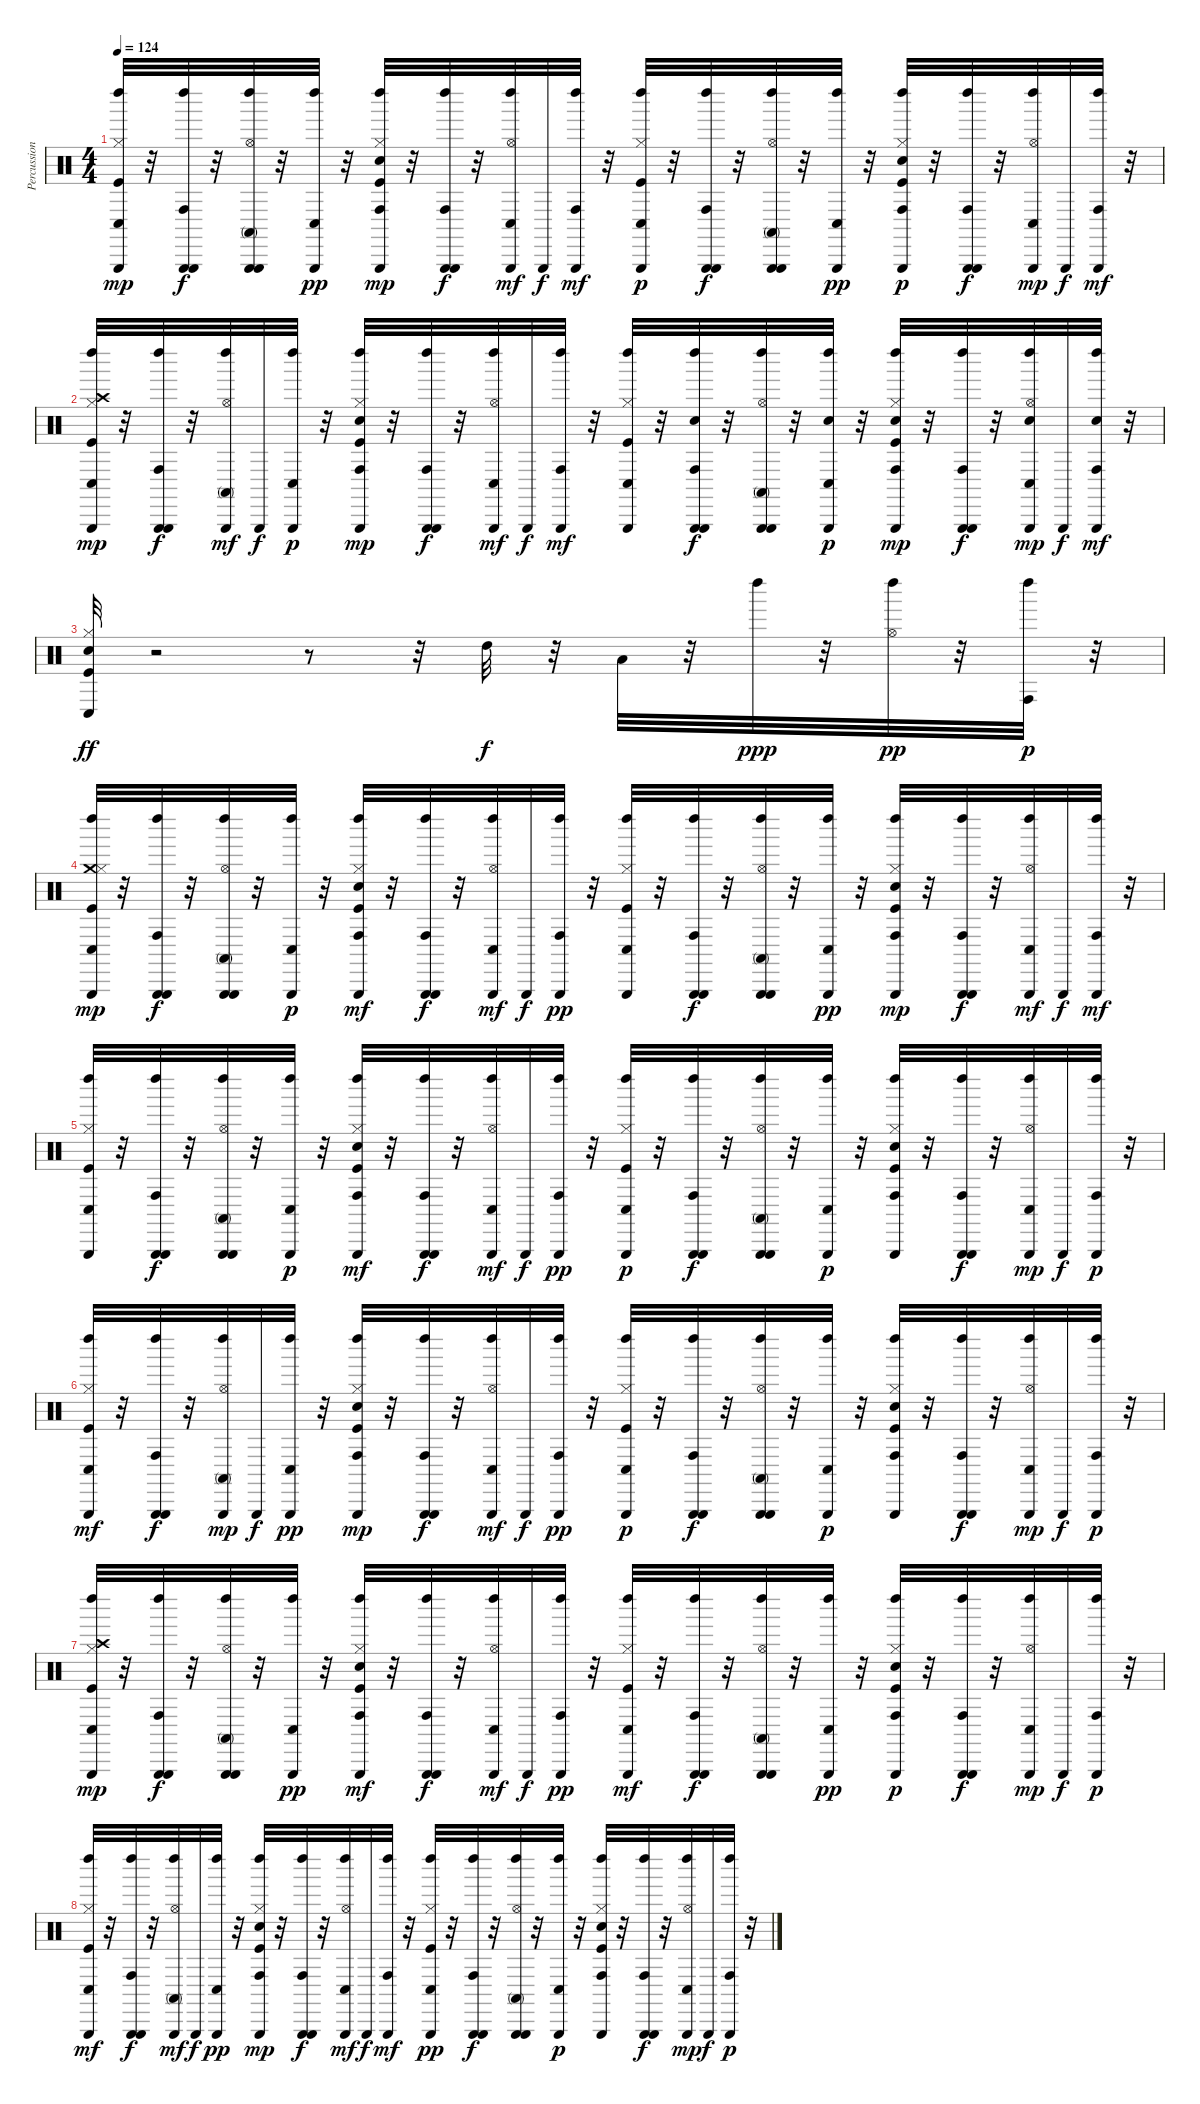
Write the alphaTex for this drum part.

\track ("Percussion" "Percussion") {instrument percussion}
\staff {score}
\articulation defaults
\ts (4 4)
\tempo 124
\clef neutral
\ks c
("Triangle (hit)" "Conga low (hit)" "Kick (hit)" "Hi-Hat (closed)" "Left Maraca (hit)").32{dy mp} r.32 ("Triangle (hit)" "Conga high (hit)" "Left Maraca (hit)" "Triangle (hit)").32{dy f} r.32 ("Triangle (hit)" "Hi-Hat (open)" "Conga high (mute)" "Left Maraca (hit)" "Triangle (hit)").32 r.32 ("Triangle (hit)" "Conga low (hit)" "Left Maraca (hit)").32{dy pp} r.32 ("Conga high (hit)" "Triangle (hit)" "Kick (hit)" "Snare (hit) 2" "Hi-Hat (closed)" "Left Maraca (hit)").32{dy mp} r.32 ("Triangle (hit)" "Left Maraca (hit)" "Conga high (hit)" "Triangle (hit)").32{dy f} r.32 ("Conga low (hit)" "Triangle (hit)" "Hi-Hat (open)" "Left Maraca (hit)").32{dy mf} "Triangle (hit)".32{dy f} ("Triangle (hit)" "Left Maraca (hit)" "Conga high (hit)").32{dy mf} r.32 ("Triangle (hit)" "Hi-Hat (closed)" "Kick (hit)" "Conga low (hit)" "Left Maraca (hit)").32{dy p} r.32 ("Conga high (hit)" "Triangle (hit)" "Left Maraca (hit)" "Triangle (hit)").32{dy f} r.32 ("Triangle (hit)" "Hi-Hat (open)" "Conga high (mute)" "Left Maraca (hit)" "Triangle (hit)").32 r.32 ("Triangle (hit)" "Conga low (hit)" "Left Maraca (hit)").32{dy pp} r.32 ("Triangle (hit)" "Kick (hit)" "Snare (hit) 2" "Hi-Hat (closed)" "Conga high (hit)" "Left Maraca (hit)").32{dy p} r.32 ("Triangle (hit)" "Left Maraca (hit)" "Conga high (hit)" "Triangle (hit)").32{dy f} r.32 ("Triangle (hit)" "Conga low (hit)" "Hi-Hat (open)" "Left Maraca (hit)").32{dy mp} "Triangle (hit)".32{dy f} ("Triangle (hit)" "Left Maraca (hit)" "Conga high (hit)").32{dy mf} r.32 |
("Triangle (hit)" "Kick (hit)" "Hi-Hat (closed)" "Crash high (hit)" "Conga low (hit)" "Left Maraca (hit)").32{dy mp} r.32 ("Triangle (hit)" "Left Maraca (hit)" "Conga high (hit)" "Triangle (hit)").32{dy f} r.32 ("Hi-Hat (open)" "Triangle (hit)" "Conga high (mute)" "Left Maraca (hit)").32{dy mf} "Triangle (hit)".32{dy f} ("Triangle (hit)" "Left Maraca (hit)" "Conga low (hit)").32{dy p} r.32 ("Triangle (hit)" "Kick (hit)" "Snare (hit) 2" "Hi-Hat (closed)" "Conga high (hit)" "Left Maraca (hit)").32{dy mp} r.32 ("Left Maraca (hit)" "Triangle (hit)" "Conga high (hit)" "Triangle (hit)").32{dy f} r.32 ("Triangle (hit)" "Left Maraca (hit)" "Hi-Hat (open)" "Conga low (hit)").32{dy mf} "Triangle (hit)".32{dy f} ("Triangle (hit)" "Left Maraca (hit)" "Conga high (hit)").32{dy mf} r.32 ("Triangle (hit)" "Kick (hit)" "Conga low (hit)" "Left Maraca (hit)" "Hi-Hat (closed)").32 r.32 ("Left Maraca (hit)" "Triangle (hit)" "Snare (hit) 2" "Conga high (hit)" "Triangle (hit)").32{dy f} r.32 ("Triangle (hit)" "Hi-Hat (open)" "Left Maraca (hit)" "Conga high (mute)" "Triangle (hit)").32 r.32 ("Left Maraca (hit)" "Triangle (hit)" "Snare (hit) 2" "Conga low (hit)").32{dy p} r.32 ("Left Maraca (hit)" "Triangle (hit)" "Kick (hit)" "Snare (hit) 2" "Conga high (hit)" "Hi-Hat (closed)").32{dy mp} r.32 ("Conga high (hit)" "Triangle (hit)" "Left Maraca (hit)" "Triangle (hit)").32{dy f} r.32 ("Triangle (hit)" "Hi-Hat (open)" "Snare (hit) 2" "Conga low (hit)" "Left Maraca (hit)").32{dy mp} "Triangle (hit)".32{dy f} ("Left Maraca (hit)" "Triangle (hit)" "Snare (hit) 2" "Conga high (hit)").32{dy mf} r.32 |
("Hi-Hat (closed)" "Kick (hit)" "Snare (hit) 2" "Conga low (hit)").32{dy ff} r.2 r.8 r.32 "High Tom (hit)".32{dy f} r.32 "Low Tom (hit)".32 r.32 "Left Maraca (hit)".32{dy ppp} r.32 ("Hi-Hat (open)" "Left Maraca (hit)").32{dy pp} r.32 ("Conga high (hit)" "Left Maraca (hit)").32{dy p} r.32 |
("Triangle (hit)" "Kick (hit)" "Crash medium (hit)" "Hi-Hat (closed)" "Conga low (hit)" "Left Maraca (hit)").32{dy mp} r.32 ("Conga high (hit)" "Triangle (hit)" "Left Maraca (hit)" "Triangle (hit)").32{dy f} r.32 ("Triangle (hit)" "Hi-Hat (open)" "Conga high (mute)" "Left Maraca (hit)" "Triangle (hit)").32 r.32 ("Triangle (hit)" "Left Maraca (hit)" "Conga low (hit)").32{dy p} r.32 ("Left Maraca (hit)" "Triangle (hit)" "Kick (hit)" "Snare (hit) 2" "Hi-Hat (closed)" "Conga high (hit)").32{dy mf} r.32 ("Left Maraca (hit)" "Triangle (hit)" "Conga high (hit)" "Triangle (hit)").32{dy f} r.32 ("Triangle (hit)" "Hi-Hat (open)" "Left Maraca (hit)" "Conga low (hit)").32{dy mf} "Triangle (hit)".32{dy f} ("Triangle (hit)" "Conga high (hit)" "Left Maraca (hit)").32{dy pp} r.32 ("Triangle (hit)" "Kick (hit)" "Hi-Hat (closed)" "Left Maraca (hit)" "Conga low (hit)").32 r.32 ("Triangle (hit)" "Conga high (hit)" "Left Maraca (hit)" "Triangle (hit)").32{dy f} r.32 ("Triangle (hit)" "Hi-Hat (open)" "Conga high (mute)" "Left Maraca (hit)" "Triangle (hit)").32 r.32 ("Triangle (hit)" "Conga low (hit)" "Left Maraca (hit)").32{dy pp} r.32 ("Triangle (hit)" "Conga high (hit)" "Left Maraca (hit)" "Kick (hit)" "Snare (hit) 2" "Hi-Hat (closed)").32{dy mp} r.32 ("Triangle (hit)" "Conga high (hit)" "Left Maraca (hit)" "Triangle (hit)").32{dy f} r.32 ("Left Maraca (hit)" "Triangle (hit)" "Hi-Hat (open)" "Conga low (hit)").32{dy mf} "Triangle (hit)".32{dy f} ("Triangle (hit)" "Left Maraca (hit)" "Conga high (hit)").32{dy mf} r.32 |
("Triangle (hit)" "Kick (hit)" "Conga low (hit)" "Left Maraca (hit)" "Hi-Hat (closed)").32 r.32 ("Triangle (hit)" "Left Maraca (hit)" "Conga high (hit)" "Triangle (hit)").32{dy f} r.32 ("Triangle (hit)" "Hi-Hat (open)" "Conga high (mute)" "Left Maraca (hit)" "Triangle (hit)").32 r.32 ("Triangle (hit)" "Left Maraca (hit)" "Conga low (hit)").32{dy p} r.32 ("Triangle (hit)" "Left Maraca (hit)" "Kick (hit)" "Snare (hit) 2" "Hi-Hat (closed)" "Conga high (hit)").32{dy mf} r.32 ("Triangle (hit)" "Left Maraca (hit)" "Conga high (hit)" "Triangle (hit)").32{dy f} r.32 ("Hi-Hat (open)" "Triangle (hit)" "Conga low (hit)" "Left Maraca (hit)").32{dy mf} "Triangle (hit)".32{dy f} ("Triangle (hit)" "Conga high (hit)" "Left Maraca (hit)").32{dy pp} r.32 ("Triangle (hit)" "Left Maraca (hit)" "Kick (hit)" "Hi-Hat (closed)" "Conga low (hit)").32{dy p} r.32 ("Triangle (hit)" "Conga high (hit)" "Left Maraca (hit)" "Triangle (hit)").32{dy f} r.32 ("Left Maraca (hit)" "Triangle (hit)" "Hi-Hat (open)" "Conga high (mute)" "Triangle (hit)").32 r.32 ("Triangle (hit)" "Left Maraca (hit)" "Conga low (hit)").32{dy p} r.32 ("Triangle (hit)" "Kick (hit)" "Snare (hit) 2" "Hi-Hat (closed)" "Conga high (hit)" "Left Maraca (hit)").32 r.32 ("Triangle (hit)" "Left Maraca (hit)" "Conga high (hit)" "Triangle (hit)").32{dy f} r.32 ("Left Maraca (hit)" "Triangle (hit)" "Conga low (hit)" "Hi-Hat (open)").32{dy mp} "Triangle (hit)".32{dy f} ("Triangle (hit)" "Conga high (hit)" "Left Maraca (hit)").32{dy p} r.32 |
("Conga low (hit)" "Left Maraca (hit)" "Triangle (hit)" "Kick (hit)" "Hi-Hat (closed)").32{dy mf} r.32 ("Triangle (hit)" "Left Maraca (hit)" "Conga high (hit)" "Triangle (hit)").32{dy f} r.32 ("Triangle (hit)" "Conga high (mute)" "Left Maraca (hit)" "Hi-Hat (open)").32{dy mp} "Triangle (hit)".32{dy f} ("Triangle (hit)" "Conga low (hit)" "Left Maraca (hit)").32{dy pp} r.32 ("Triangle (hit)" "Kick (hit)" "Snare (hit) 2" "Hi-Hat (closed)" "Conga high (hit)" "Left Maraca (hit)").32{dy mp} r.32 ("Triangle (hit)" "Left Maraca (hit)" "Conga high (hit)" "Triangle (hit)").32{dy f} r.32 ("Triangle (hit)" "Conga low (hit)" "Hi-Hat (open)" "Left Maraca (hit)").32{dy mf} "Triangle (hit)".32{dy f} ("Triangle (hit)" "Conga high (hit)" "Left Maraca (hit)").32{dy pp} r.32 ("Triangle (hit)" "Conga low (hit)" "Kick (hit)" "Hi-Hat (closed)" "Left Maraca (hit)").32{dy p} r.32 ("Triangle (hit)" "Left Maraca (hit)" "Conga high (hit)" "Triangle (hit)").32{dy f} r.32 ("Triangle (hit)" "Left Maraca (hit)" "Hi-Hat (open)" "Conga high (mute)" "Triangle (hit)").32 r.32 ("Triangle (hit)" "Left Maraca (hit)" "Conga low (hit)").32{dy p} r.32 ("Triangle (hit)" "Kick (hit)" "Snare (hit) 2" "Hi-Hat (closed)" "Conga high (hit)" "Left Maraca (hit)").32 r.32 ("Conga high (hit)" "Triangle (hit)" "Left Maraca (hit)" "Triangle (hit)").32{dy f} r.32 ("Triangle (hit)" "Hi-Hat (open)" "Conga low (hit)" "Left Maraca (hit)").32{dy mp} "Triangle (hit)".32{dy f} ("Triangle (hit)" "Conga high (hit)" "Left Maraca (hit)").32{dy p} r.32 |
("Triangle (hit)" "Kick (hit)" "Crash high (hit)" "Conga low (hit)" "Hi-Hat (closed)" "Left Maraca (hit)").32{dy mp} r.32 ("Triangle (hit)" "Left Maraca (hit)" "Conga high (hit)" "Triangle (hit)").32{dy f} r.32 ("Triangle (hit)" "Hi-Hat (open)" "Conga high (mute)" "Left Maraca (hit)" "Triangle (hit)").32 r.32 ("Conga low (hit)" "Triangle (hit)" "Left Maraca (hit)").32{dy pp} r.32 ("Triangle (hit)" "Kick (hit)" "Snare (hit) 2" "Hi-Hat (closed)" "Left Maraca (hit)" "Conga high (hit)").32{dy mf} r.32 ("Triangle (hit)" "Left Maraca (hit)" "Conga high (hit)" "Triangle (hit)").32{dy f} r.32 ("Triangle (hit)" "Conga low (hit)" "Hi-Hat (open)" "Left Maraca (hit)").32{dy mf} "Triangle (hit)".32{dy f} ("Triangle (hit)" "Conga high (hit)" "Left Maraca (hit)").32{dy pp} r.32 ("Left Maraca (hit)" "Triangle (hit)" "Kick (hit)" "Conga low (hit)" "Hi-Hat (closed)").32{dy mf} r.32 ("Triangle (hit)" "Conga high (hit)" "Left Maraca (hit)" "Triangle (hit)").32{dy f} r.32 ("Triangle (hit)" "Left Maraca (hit)" "Hi-Hat (open)" "Conga high (mute)" "Triangle (hit)").32 r.32 ("Triangle (hit)" "Conga low (hit)" "Left Maraca (hit)").32{dy pp} r.32 ("Hi-Hat (closed)" "Triangle (hit)" "Kick (hit)" "Snare (hit) 2" "Conga high (hit)" "Left Maraca (hit)").32{dy p} r.32 ("Left Maraca (hit)" "Triangle (hit)" "Conga high (hit)" "Triangle (hit)").32{dy f} r.32 ("Triangle (hit)" "Hi-Hat (open)" "Left Maraca (hit)" "Conga low (hit)").32{dy mp} "Triangle (hit)".32{dy f} ("Triangle (hit)" "Conga high (hit)" "Left Maraca (hit)").32{dy p} r.32 |
("Triangle (hit)" "Conga low (hit)" "Kick (hit)" "Left Maraca (hit)" "Hi-Hat (closed)").32{dy mf} r.32 ("Triangle (hit)" "Conga high (hit)" "Left Maraca (hit)" "Triangle (hit)").32{dy f} r.32 ("Triangle (hit)" "Hi-Hat (open)" "Left Maraca (hit)" "Conga high (mute)").32{dy mf} "Triangle (hit)".32{dy f} ("Triangle (hit)" "Conga low (hit)" "Left Maraca (hit)").32{dy pp} r.32 ("Hi-Hat (closed)" "Triangle (hit)" "Kick (hit)" "Snare (hit) 2" "Conga high (hit)" "Left Maraca (hit)").32{dy mp} r.32 ("Conga high (hit)" "Triangle (hit)" "Left Maraca (hit)" "Triangle (hit)").32{dy f} r.32 ("Hi-Hat (open)" "Conga low (hit)" "Triangle (hit)" "Left Maraca (hit)").32{dy mf} "Triangle (hit)".32{dy f} ("Left Maraca (hit)" "Triangle (hit)" "Conga high (hit)").32{dy mf} r.32 ("Triangle (hit)" "Kick (hit)" "Hi-Hat (closed)" "Left Maraca (hit)" "Conga low (hit)").32{dy pp} r.32 ("Triangle (hit)" "Left Maraca (hit)" "Conga high (hit)" "Triangle (hit)").32{dy f} r.32 ("Conga high (mute)" "Triangle (hit)" "Left Maraca (hit)" "Hi-Hat (open)" "Triangle (hit)").32 r.32 ("Triangle (hit)" "Left Maraca (hit)" "Conga low (hit)").32{dy p} r.32 ("Triangle (hit)" "Hi-Hat (closed)" "Kick (hit)" "Snare (hit) 2" "Conga high (hit)" "Left Maraca (hit)").32 r.32 ("Triangle (hit)" "Conga high (hit)" "Left Maraca (hit)" "Triangle (hit)").32{dy f} r.32 ("Triangle (hit)" "Conga low (hit)" "Left Maraca (hit)" "Hi-Hat (open)").32{dy mp} "Triangle (hit)".32{dy f} ("Triangle (hit)" "Conga high (hit)" "Left Maraca (hit)").32{dy p} r.32
